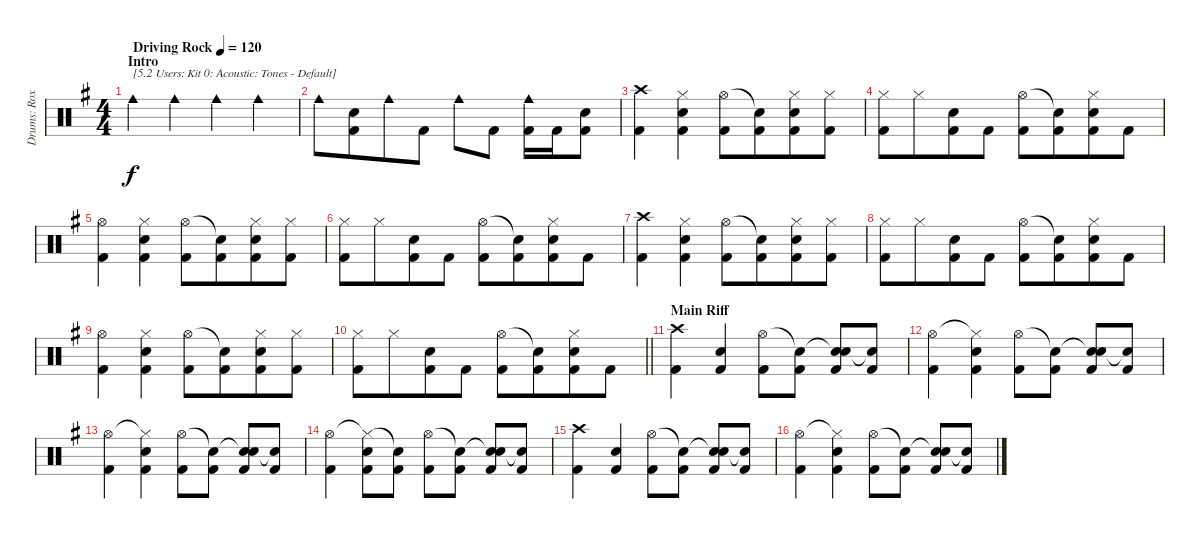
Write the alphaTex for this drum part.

\track ("Drums: Roxy" "Drums: Rox") {instrument percussion}
\staff {score}
\articulation defaults
\ts (4 4)
\section ("" "Intro")
\tempo (120 "Driving Rock")
\clef neutral
\ks g "Cowbell medium (hit)".4{txt "[5.2 Users: Kit 0: Acoustic: Tones - Default]" dy f} "Cowbell medium (hit)".4 "Cowbell medium (hit)".4 "Cowbell medium (hit)".4
|
"Cowbell medium (hit)".8 ("Snare (hit) 2" "Kick (hit) 2").8{beam merge} "Cowbell medium (hit)".8 "Kick (hit) 2".8 "Cowbell medium (hit)".8 "Kick (hit) 2".8 ("Kick (hit) 2" "Cowbell medium (hit)").16 "Kick (hit) 2".16 ("Snare (hit) 2" "Kick (hit) 2").8 |
("Crash high (hit)" "Kick (hit) 2").4 ("Hi-Hat (closed)" "Snare (hit) 2" "Kick (hit) 2").4 ("Hi-Hat (open)" "Kick (hit) 2").8 ("Snare (hit)"{t} "Kick (hit) 2").8{beam merge} ("Hi-Hat (closed)" "Snare (hit) 2" "Kick (hit) 2").8 ("Hi-Hat (closed)" "Kick (hit) 2").8 |
("Hi-Hat (closed)" "Kick (hit) 2").8 "Hi-Hat (closed)".8{beam merge} ("Snare (hit) 2" "Kick (hit) 2").8 "Kick (hit) 2".8 ("Hi-Hat (open)" "Kick (hit) 2").8 ("Snare (hit)"{t} "Kick (hit) 2").8{beam merge} ("Hi-Hat (closed)" "Snare (hit) 2" "Kick (hit) 2").8 "Kick (hit) 2".8 |
("Hi-Hat (open)" "Kick (hit) 2").4 ("Hi-Hat (closed)" "Snare (hit) 2" "Kick (hit) 2").4 ("Hi-Hat (open)" "Kick (hit) 2").8 ("Snare (hit)"{t} "Kick (hit) 2").8{beam merge} ("Hi-Hat (closed)" "Snare (hit) 2" "Kick (hit) 2").8 ("Hi-Hat (closed)" "Kick (hit) 2").8 |
("Hi-Hat (closed)" "Kick (hit) 2").8 "Hi-Hat (closed)".8{beam merge} ("Snare (hit) 2" "Kick (hit) 2").8 "Kick (hit) 2".8 ("Hi-Hat (open)" "Kick (hit) 2").8 ("Snare (hit)"{t} "Kick (hit) 2").8{beam merge} ("Hi-Hat (closed)" "Snare (hit) 2" "Kick (hit) 2").8 "Kick (hit) 2".8 |
("Crash high (hit)" "Kick (hit) 2").4 ("Hi-Hat (closed)" "Snare (hit) 2" "Kick (hit) 2").4 ("Hi-Hat (open)" "Kick (hit) 2").8 ("Snare (hit)"{t} "Kick (hit) 2").8{beam merge} ("Hi-Hat (closed)" "Snare (hit) 2" "Kick (hit) 2").8 ("Hi-Hat (closed)" "Kick (hit) 2").8 |
("Hi-Hat (closed)" "Kick (hit) 2").8 "Hi-Hat (closed)".8{beam merge} ("Snare (hit) 2" "Kick (hit) 2").8 "Kick (hit) 2".8 ("Hi-Hat (open)" "Kick (hit) 2").8 ("Snare (hit)"{t} "Kick (hit) 2").8{beam merge} ("Hi-Hat (closed)" "Snare (hit) 2" "Kick (hit) 2").8 "Kick (hit) 2".8 |
("Hi-Hat (open)" "Kick (hit) 2").4 ("Hi-Hat (closed)" "Snare (hit) 2" "Kick (hit) 2").4 ("Hi-Hat (open)" "Kick (hit) 2").8 ("Snare (hit)"{t} "Kick (hit) 2").8{beam merge} ("Hi-Hat (closed)" "Snare (hit) 2" "Kick (hit) 2").8 ("Hi-Hat (closed)" "Kick (hit) 2").8 |
\barLineRight lightlight
("Hi-Hat (closed)" "Kick (hit) 2").8 "Hi-Hat (closed)".8{beam merge} ("Snare (hit) 2" "Kick (hit) 2").8 "Kick (hit) 2".8 ("Hi-Hat (open)" "Kick (hit) 2").8 ("Snare (hit)"{t} "Kick (hit) 2").8{beam merge} ("Hi-Hat (closed)" "Snare (hit) 2" "Kick (hit) 2").8 "Kick (hit) 2".8 |
\section ("" "Main Riff")
("Crash high (hit)" "Kick (hit) 2").4 ("Snare (hit) 2" "Kick (hit) 2").4 ("Hi-Hat (open)" "Kick (hit) 2").8 ("Snare (hit)"{t} "Kick (hit) 2").8 ("Snare (hit)"{t} "Snare (hit) 2" "Kick (hit) 2").8 ("Snare (hit)"{t} "Kick (hit) 2").8 |
("Hi-Hat (open)" "Kick (hit) 2").4 ("Hi-Hat (closed)"{t} "Snare (hit) 2" "Kick (hit) 2").4 ("Hi-Hat (open)" "Kick (hit) 2").8 ("Snare (hit)"{t} "Kick (hit) 2").8 ("Snare (hit)"{t} "Snare (hit) 2" "Kick (hit) 2").8 ("Snare (hit)"{t} "Kick (hit) 2").8 |
("Hi-Hat (open)" "Kick (hit) 2").4 ("Hi-Hat (closed)"{t} "Snare (hit) 2" "Kick (hit) 2").4 ("Hi-Hat (open)" "Kick (hit) 2").8 ("Snare (hit)"{t} "Kick (hit) 2").8 ("Snare (hit)"{t} "Snare (hit) 2" "Kick (hit) 2").8 ("Snare (hit)"{t} "Kick (hit) 2").8 |
("Hi-Hat (open)" "Kick (hit) 2").4 ("Hi-Hat (closed)"{t} "Snare (hit) 2" "Kick (hit) 2").8 ("Snare (hit)"{t} "Kick (hit) 2").8 ("Hi-Hat (open)" "Kick (hit) 2").8 ("Snare (hit)"{t} "Kick (hit) 2").8 ("Snare (hit)"{t} "Snare (hit) 2" "Kick (hit) 2").8 ("Snare (hit)"{t} "Kick (hit) 2").8 |
("Crash high (hit)" "Kick (hit) 2").4 ("Snare (hit) 2" "Kick (hit) 2").4 ("Hi-Hat (open)" "Kick (hit) 2").8 ("Snare (hit)"{t} "Kick (hit) 2").8 ("Snare (hit)"{t} "Snare (hit) 2" "Kick (hit) 2").8 ("Snare (hit)"{t} "Kick (hit) 2").8 |
("Hi-Hat (open)" "Kick (hit) 2").4 ("Hi-Hat (closed)"{t} "Snare (hit) 2" "Kick (hit) 2").4 ("Hi-Hat (open)" "Kick (hit) 2").8 ("Snare (hit)"{t} "Kick (hit) 2").8 ("Snare (hit)"{t} "Snare (hit) 2" "Kick (hit) 2").8 ("Snare (hit)"{t} "Kick (hit) 2").8
